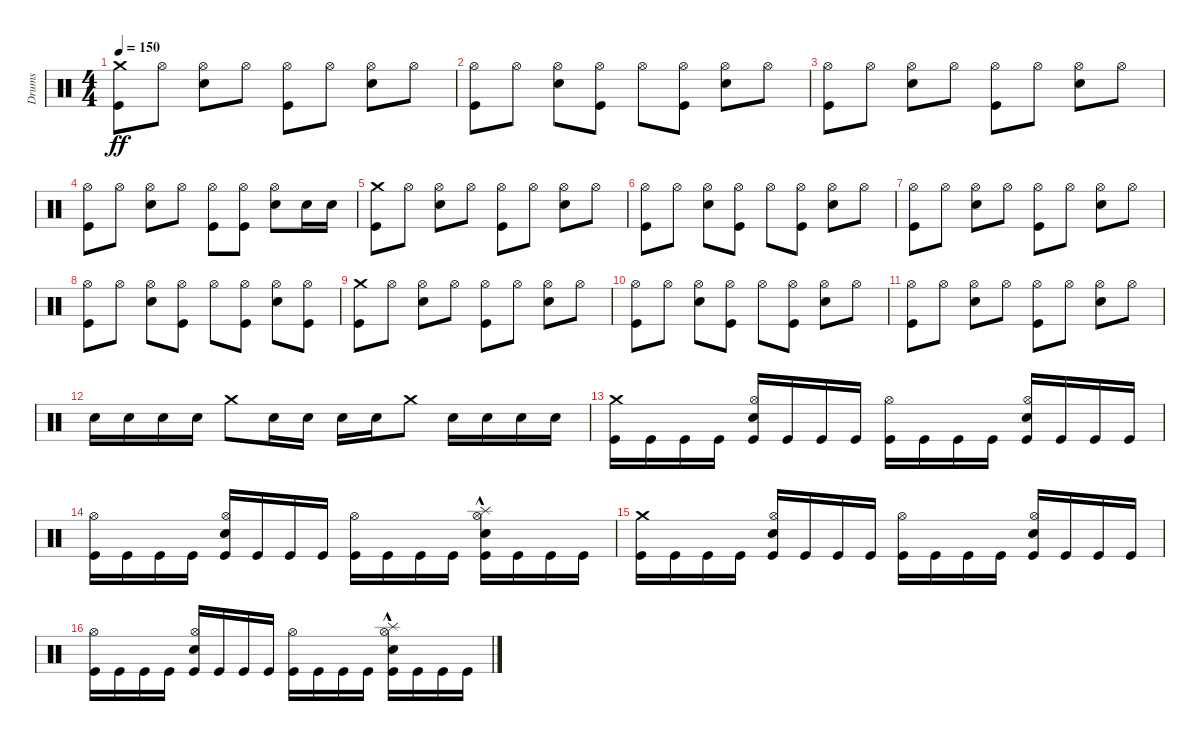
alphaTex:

\track ("Drums" "Drums") {instrument percussion}
\staff {score}
\articulation defaults
\ts (4 4)
\tempo 150
\clef neutral
\ks c
("Kick (hit)" "Crash medium (hit)").8{dy ff} "Hi-Hat (open)".8 ("Electric Snare (hit)" "Hi-Hat (open)").8 "Hi-Hat (open)".8 ("Kick (hit)" "Hi-Hat (open)").8 "Hi-Hat (open)".8 ("Electric Snare (hit)" "Hi-Hat (open)").8 "Hi-Hat (open)".8 |
("Kick (hit)" "Hi-Hat (open)").8 "Hi-Hat (open)".8 ("Electric Snare (hit)" "Hi-Hat (open)").8 ("Kick (hit)" "Hi-Hat (open)").8 "Hi-Hat (open)".8 ("Kick (hit)" "Hi-Hat (open)").8 ("Electric Snare (hit)" "Hi-Hat (open)").8 "Hi-Hat (open)".8 |
("Kick (hit)" "Hi-Hat (open)").8 "Hi-Hat (open)".8 ("Electric Snare (hit)" "Hi-Hat (open)").8 "Hi-Hat (open)".8 ("Kick (hit)" "Hi-Hat (open)").8 "Hi-Hat (open)".8 ("Electric Snare (hit)" "Hi-Hat (open)").8 "Hi-Hat (open)".8 |
("Kick (hit)" "Hi-Hat (open)").8 "Hi-Hat (open)".8 ("Electric Snare (hit)" "Hi-Hat (open)").8 "Hi-Hat (open)".8 ("Kick (hit)" "Hi-Hat (open)").8 ("Kick (hit)" "Hi-Hat (open)").8 ("Electric Snare (hit)" "Hi-Hat (open)").8 "Electric Snare (hit)".16 "Electric Snare (hit)".16 |
("Kick (hit)" "Crash medium (hit)").8 "Hi-Hat (open)".8 ("Electric Snare (hit)" "Hi-Hat (open)").8 "Hi-Hat (open)".8 ("Kick (hit)" "Hi-Hat (open)").8 "Hi-Hat (open)".8 ("Electric Snare (hit)" "Hi-Hat (open)").8 "Hi-Hat (open)".8 |
("Kick (hit)" "Hi-Hat (open)").8 "Hi-Hat (open)".8 ("Electric Snare (hit)" "Hi-Hat (open)").8 ("Kick (hit)" "Hi-Hat (open)").8 "Hi-Hat (open)".8 ("Kick (hit)" "Hi-Hat (open)").8 ("Electric Snare (hit)" "Hi-Hat (open)").8 "Hi-Hat (open)".8 |
("Kick (hit)" "Hi-Hat (open)").8 "Hi-Hat (open)".8 ("Electric Snare (hit)" "Hi-Hat (open)").8 "Hi-Hat (open)".8 ("Kick (hit)" "Hi-Hat (open)").8 "Hi-Hat (open)".8 ("Electric Snare (hit)" "Hi-Hat (open)").8 "Hi-Hat (open)".8 |
("Kick (hit)" "Hi-Hat (open)").8 "Hi-Hat (open)".8 ("Electric Snare (hit)" "Hi-Hat (open)").8 ("Kick (hit)" "Hi-Hat (open)").8 "Hi-Hat (open)".8 ("Kick (hit)" "Hi-Hat (open)").8 ("Electric Snare (hit)" "Hi-Hat (open)").8 ("Kick (hit)" "Hi-Hat (open)").8 |
("Kick (hit)" "Crash medium (hit)").8 "Hi-Hat (open)".8 ("Electric Snare (hit)" "Hi-Hat (open)").8 "Hi-Hat (open)".8 ("Kick (hit)" "Hi-Hat (open)").8 "Hi-Hat (open)".8 ("Electric Snare (hit)" "Hi-Hat (open)").8 "Hi-Hat (open)".8 |
("Kick (hit)" "Hi-Hat (open)").8 "Hi-Hat (open)".8 ("Electric Snare (hit)" "Hi-Hat (open)").8 ("Kick (hit)" "Hi-Hat (open)").8 "Hi-Hat (open)".8 ("Kick (hit)" "Hi-Hat (open)").8 ("Electric Snare (hit)" "Hi-Hat (open)").8 "Hi-Hat (open)".8 |
("Kick (hit)" "Hi-Hat (open)").8 "Hi-Hat (open)".8 ("Electric Snare (hit)" "Hi-Hat (open)").8 "Hi-Hat (open)".8 ("Kick (hit)" "Hi-Hat (open)").8 "Hi-Hat (open)".8 ("Electric Snare (hit)" "Hi-Hat (open)").8 "Hi-Hat (open)".8 |
"Electric Snare (hit)".16 "Electric Snare (hit)".16 "Electric Snare (hit)".16 "Electric Snare (hit)".16 "Crash medium (hit)".8 "Electric Snare (hit)".16 "Electric Snare (hit)".16 "Electric Snare (hit)".16 "Electric Snare (hit)".16 "Crash medium (hit)".8 "Electric Snare (hit)".16 "Electric Snare (hit)".16 "Electric Snare (hit)".16 "Electric Snare (hit)".16 |
("Kick (hit)" "Crash medium (hit)").16 "Kick (hit)".16 "Kick (hit)".16 "Kick (hit)".16 ("Kick (hit)" "Electric Snare (hit)" "Hi-Hat (open)").16 "Kick (hit)".16 "Kick (hit)".16 "Kick (hit)".16 ("Kick (hit)" "Hi-Hat (open)").16 "Kick (hit)".16 "Kick (hit)".16 "Kick (hit)".16 ("Kick (hit)" "Electric Snare (hit)" "Hi-Hat (open)").16 "Kick (hit)".16 "Kick (hit)".16 "Kick (hit)".16 |
("Kick (hit)" "Hi-Hat (open)").16 "Kick (hit)".16 "Kick (hit)".16 "Kick (hit)".16 ("Kick (hit)" "Electric Snare (hit)" "Hi-Hat (open)").16 "Kick (hit)".16 "Kick (hit)".16 "Kick (hit)".16 ("Kick (hit)" "Hi-Hat (open)").16 "Kick (hit)".16 "Kick (hit)".16 "Kick (hit)".16 ("Kick (hit)" "Electric Snare (hit)" "Hi-Hat (open)" "Splash (hit)"{hac}).16 "Kick (hit)".16 "Kick (hit)".16 "Kick (hit)".16 |
("Kick (hit)" "Crash medium (hit)").16 "Kick (hit)".16 "Kick (hit)".16 "Kick (hit)".16 ("Kick (hit)" "Electric Snare (hit)" "Hi-Hat (open)").16 "Kick (hit)".16 "Kick (hit)".16 "Kick (hit)".16 ("Kick (hit)" "Hi-Hat (open)").16 "Kick (hit)".16 "Kick (hit)".16 "Kick (hit)".16 ("Kick (hit)" "Electric Snare (hit)" "Hi-Hat (open)").16 "Kick (hit)".16 "Kick (hit)".16 "Kick (hit)".16 |
("Kick (hit)" "Hi-Hat (open)").16 "Kick (hit)".16 "Kick (hit)".16 "Kick (hit)".16 ("Kick (hit)" "Electric Snare (hit)" "Hi-Hat (open)").16 "Kick (hit)".16 "Kick (hit)".16 "Kick (hit)".16 ("Kick (hit)" "Hi-Hat (open)").16 "Kick (hit)".16 "Kick (hit)".16 "Kick (hit)".16 ("Kick (hit)" "Electric Snare (hit)" "Hi-Hat (open)" "Splash (hit)"{hac}).16 "Kick (hit)".16 "Kick (hit)".16 "Kick (hit)".16
